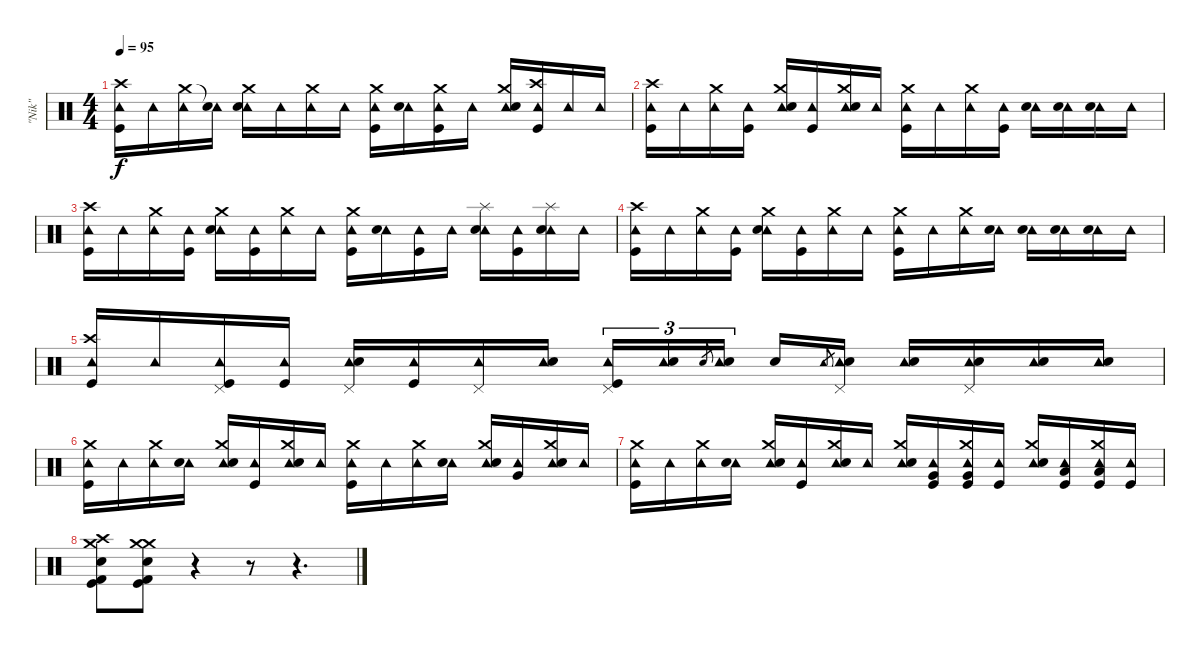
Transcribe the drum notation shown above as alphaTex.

\track ("\"Nik\"" "\"Nik\"") {instrument percussion}
\staff {score}
\articulation defaults
\ts (4 4)
\tempo 95
\clef neutral
\ks c
("Tambourine (hit)" "Crash high (hit)" "Kick (hit)").16{dy f} "Tambourine (hit)".16 ("Tambourine (hit)" "Crash medium (hit)").16 ("Tambourine (hit)" "Snare (hit)"{t}).16 ("Tambourine (hit)" "Crash medium (hit)" "Snare (hit) 2").16 "Tambourine (hit)".16 ("Tambourine (hit)" "Crash medium (hit)").16 "Tambourine (hit)".16 ("Tambourine (hit)" "Crash medium (hit)" "Kick (hit)").16 ("Tambourine (hit)" "Snare (hit) 2").16 ("Tambourine (hit)" "Crash medium (hit)" "Kick (hit)").16 "Tambourine (hit)".16 ("Tambourine (hit)" "Crash medium (hit)" "Snare (hit) 2").16 ("Tambourine (hit)" "Crash high (hit)" "Kick (hit)").16 "Tambourine (hit)".16 "Tambourine (hit)".16 |
("Tambourine (hit)" "Crash high (hit)" "Kick (hit)").16 "Tambourine (hit)".16 ("Tambourine (hit)" "Crash medium (hit)").16 ("Tambourine (hit)" "Kick (hit)").16 ("Tambourine (hit)" "Crash medium (hit)" "Snare (hit) 2").16 ("Tambourine (hit)" "Kick (hit)").16 ("Tambourine (hit)" "Crash medium (hit)" "Snare (hit) 2").16 "Tambourine (hit)".16 ("Tambourine (hit)" "Crash medium (hit)" "Kick (hit)").16 "Tambourine (hit)".16 ("Tambourine (hit)" "Crash medium (hit)").16 ("Tambourine (hit)" "Kick (hit)").16 ("Tambourine (hit)" "Snare (hit) 2").16 ("Tambourine (hit)" "Snare (hit) 2").16 ("Tambourine (hit)" "Snare (hit) 2").16 "Tambourine (hit)".16 |
("Tambourine (hit)" "Crash high (hit)" "Kick (hit)").16 "Tambourine (hit)".16 ("Tambourine (hit)" "Crash medium (hit)").16 ("Tambourine (hit)" "Kick (hit)").16 ("Tambourine (hit)" "Crash medium (hit)" "Snare (hit) 2").16 ("Tambourine (hit)" "Kick (hit)").16 ("Tambourine (hit)" "Crash medium (hit)").16 "Tambourine (hit)".16 ("Tambourine (hit)" "Crash medium (hit)" "Kick (hit)").16 ("Tambourine (hit)" "Snare (hit) 2").16 ("Tambourine (hit)" "Kick (hit)").16 "Tambourine (hit)".16 ("Tambourine (hit)" "Splash (hit)" "Snare (hit) 2").16 ("Tambourine (hit)" "Kick (hit)").16 ("Tambourine (hit)" "Splash (hit)" "Snare (hit) 2").16 "Tambourine (hit)".16 |
("Tambourine (hit)" "Crash high (hit)" "Kick (hit)").16 "Tambourine (hit)".16 ("Tambourine (hit)" "Crash medium (hit)").16 ("Tambourine (hit)" "Kick (hit)").16 ("Tambourine (hit)" "Crash medium (hit)" "Snare (hit) 2").16 ("Tambourine (hit)" "Kick (hit)").16 ("Tambourine (hit)" "Crash medium (hit)").16 "Tambourine (hit)".16 ("Tambourine (hit)" "Crash medium (hit)" "Kick (hit)").16 "Tambourine (hit)".16 ("Tambourine (hit)" "Crash medium (hit)").16 ("Tambourine (hit)" "Snare (hit) 2").16 ("Tambourine (hit)" "Snare (hit) 2").16 ("Tambourine (hit)" "Snare (hit) 2").16 ("Tambourine (hit)" "Snare (hit) 2").16 "Tambourine (hit)".16 |
("Tambourine (hit)" "Crash high (hit)" "Kick (hit)").16 "Tambourine (hit)".16 ("Tambourine (hit)" "Pedal Hi-Hat (hit)" "Kick (hit)").16 ("Tambourine (hit)" "Kick (hit)").16 ("Tambourine (hit)" "Pedal Hi-Hat (hit)" "Snare (hit) 2").16 ("Tambourine (hit)" "Kick (hit)").16 ("Tambourine (hit)" "Pedal Hi-Hat (hit)").16 ("Tambourine (hit)" "Snare (hit) 2").16 ("Tambourine (hit)" "Pedal Hi-Hat (hit)" "Kick (hit)").16{tu (3 2)} ("Tambourine (hit)" "Snare (hit) 2").16{tu (3 2)} "Snare (hit) 2".8{gr} ("Tambourine (hit)" "Snare (hit) 2").16{tu (3 2)} "Snare (hit) 2".16 "Tambourine (hit)".8{gr} ("Tambourine (hit)" "Pedal Hi-Hat (hit)" "Snare (hit) 2").16 ("Tambourine (hit)" "Snare (hit) 2").16 ("Tambourine (hit)" "Pedal Hi-Hat (hit)" "Snare (hit) 2").16 ("Tambourine (hit)" "Snare (hit) 2").16 ("Tambourine (hit)" "Snare (hit) 2").16 |
("Tambourine (hit)" "Crash medium (hit)" "Kick (hit)").16 "Tambourine (hit)".16 ("Tambourine (hit)" "Crash medium (hit)").16 ("Tambourine (hit)" "Snare (hit) 2").16 ("Tambourine (hit)" "Crash medium (hit)" "Snare (hit) 2").16 ("Tambourine (hit)" "Kick (hit)").16 ("Tambourine (hit)" "Crash medium (hit)" "Snare (hit) 2").16 "Tambourine (hit)".16 ("Tambourine (hit)" "Crash medium (hit)" "Kick (hit)").16 "Tambourine (hit)".16 ("Tambourine (hit)" "Crash medium (hit)").16 ("Tambourine (hit)" "Snare (hit) 2").16 ("Tambourine (hit)" "Crash medium (hit)" "Snare (hit) 2").16 ("Tambourine (hit)" "Very Low Tom (hit)").16 ("Tambourine (hit)" "Crash medium (hit)" "Snare (hit) 2").16 "Tambourine (hit)".16 |
("Tambourine (hit)" "Crash medium (hit)" "Kick (hit)").16 "Tambourine (hit)".16 ("Tambourine (hit)" "Crash medium (hit)").16 ("Tambourine (hit)" "Snare (hit) 2").16 ("Tambourine (hit)" "Crash medium (hit)" "Snare (hit) 2").16 ("Tambourine (hit)" "Kick (hit)").16 ("Tambourine (hit)" "Crash medium (hit)" "Snare (hit) 2").16 "Tambourine (hit)".16 ("Tambourine (hit)" "Crash medium (hit)" "Snare (hit) 2").16 ("Tambourine (hit)" "Very Low Tom (hit)" "Kick (hit)").16 ("Tambourine (hit)" "Crash medium (hit)" "Very Low Tom (hit)" "Kick (hit)").16 ("Tambourine (hit)" "Kick (hit)").16 ("Tambourine (hit)" "Crash medium (hit)" "Snare (hit) 2").16 ("Tambourine (hit)" "Low Floor Tom (hit)" "Kick (hit)").16 ("Tambourine (hit)" "Crash medium (hit)" "Low Floor Tom (hit)" "Kick (hit)").16 ("Tambourine (hit)" "Kick (hit)").16 |
("Crash high (hit)" "Crash medium (hit)" "Snare (hit) 2" "Kick (hit) 2" "Kick (hit)").8 ("Crash medium (hit)" "Crash medium (hit)" "Snare (hit) 2" "Kick (hit) 2" "Kick (hit)").8 r.4 r.8 r.4{d}
